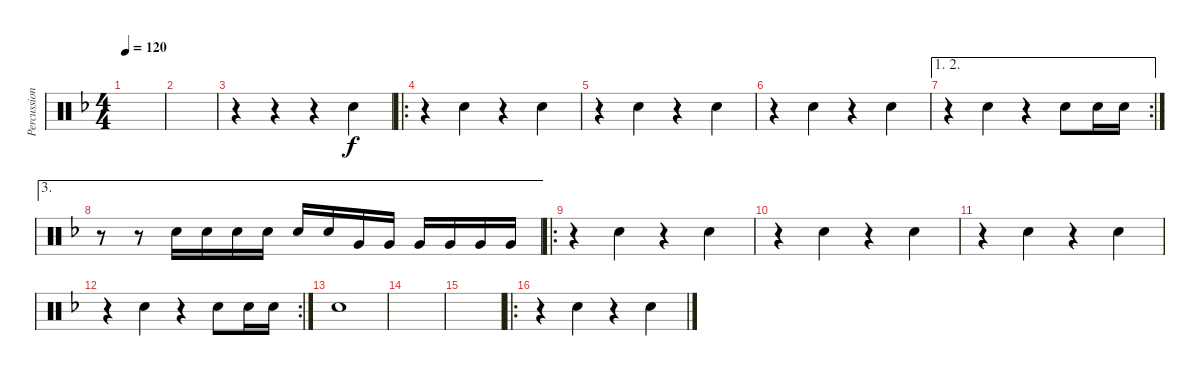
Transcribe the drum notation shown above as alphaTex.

\track ("Percussion" "Percussion") {instrument percussion}
\staff {score}
\articulation defaults
\ts (4 4)
\tempo 120
\clef neutral
\ks f
|
|
r.4 r.4 r.4 "Electric Snare (hit)".4 |
\ro
r.4 "Electric Snare (hit)".4 r.4 "Electric Snare (hit)".4 |
r.4 "Electric Snare (hit)".4 r.4 "Electric Snare (hit)".4 |
r.4 "Electric Snare (hit)".4 r.4 "Electric Snare (hit)".4 |
\ae (1 2)
\rc 2
r.4 "Electric Snare (hit)".4 r.4 "Electric Snare (hit)".8 "Electric Snare (hit)".16 "Electric Snare (hit)".16 |
\ae 3
r.8 r.8 "Electric Snare (hit)".16 "Electric Snare (hit)".16 "Electric Snare (hit)".16 "Electric Snare (hit)".16 "Electric Snare (hit)".16 "Electric Snare (hit)".16 "Very Low Tom (hit)".16 "Very Low Tom (hit)".16 "Very Low Tom (hit)".16 "Very Low Tom (hit)".16 "Very Low Tom (hit)".16 "Very Low Tom (hit)".16 |
\ro
r.4 "Electric Snare (hit)".4 r.4 "Electric Snare (hit)".4 |
r.4 "Electric Snare (hit)".4 r.4 "Electric Snare (hit)".4 |
r.4 "Electric Snare (hit)".4 r.4 "Electric Snare (hit)".4 |
\rc 2
r.4 "Electric Snare (hit)".4 r.4 "Electric Snare (hit)".8 "Electric Snare (hit)".16 "Electric Snare (hit)".16 |
"Electric Snare (hit)".1 |
|
|
\ro
r.4 "Electric Snare (hit)".4 r.4 "Electric Snare (hit)".4
